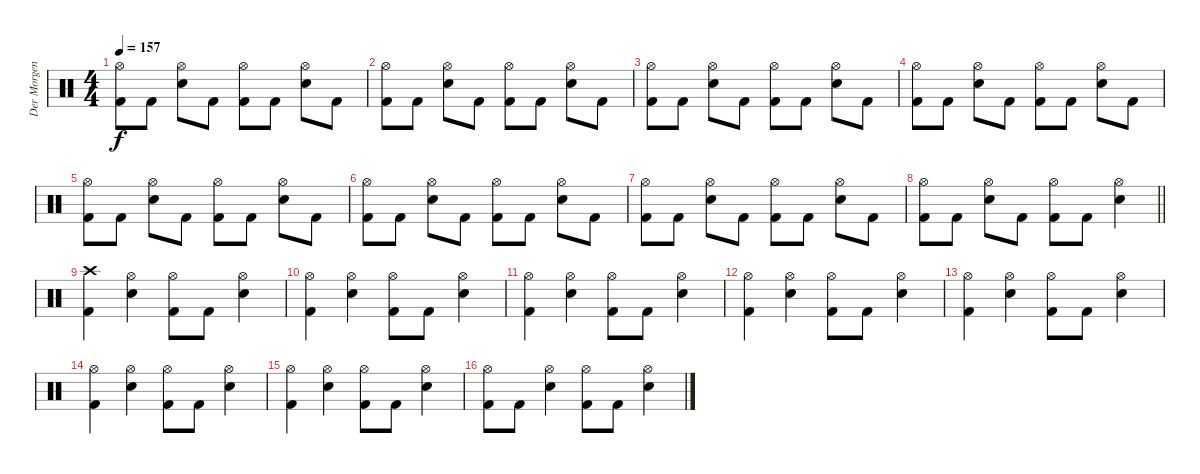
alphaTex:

\track ("Der Morgenstern" "Der Morgen") {instrument percussion}
\staff {score}
\articulation defaults
\ts (4 4)
\tempo 157
\clef neutral
\ks c
("Hi-Hat (open)" "Kick (hit) 2").8{dy f} "Kick (hit) 2".8 ("Hi-Hat (open)" "Electric Snare (hit)").8 "Kick (hit) 2".8 ("Hi-Hat (open)" "Kick (hit) 2").8 "Kick (hit) 2".8 ("Hi-Hat (open)" "Electric Snare (hit)").8 "Kick (hit) 2".8 |
("Hi-Hat (open)" "Kick (hit) 2").8 "Kick (hit) 2".8 ("Hi-Hat (open)" "Electric Snare (hit)").8 "Kick (hit) 2".8 ("Hi-Hat (open)" "Kick (hit) 2").8 "Kick (hit) 2".8 ("Hi-Hat (open)" "Electric Snare (hit)").8 "Kick (hit) 2".8 |
("Hi-Hat (open)" "Kick (hit) 2").8 "Kick (hit) 2".8 ("Hi-Hat (open)" "Electric Snare (hit)").8 "Kick (hit) 2".8 ("Hi-Hat (open)" "Kick (hit) 2").8 "Kick (hit) 2".8 ("Hi-Hat (open)" "Electric Snare (hit)").8 "Kick (hit) 2".8 |
("Hi-Hat (open)" "Kick (hit) 2").8 "Kick (hit) 2".8 ("Hi-Hat (open)" "Electric Snare (hit)").8 "Kick (hit) 2".8 ("Hi-Hat (open)" "Kick (hit) 2").8 "Kick (hit) 2".8 ("Hi-Hat (open)" "Electric Snare (hit)").8 "Kick (hit) 2".8 |
("Hi-Hat (open)" "Kick (hit) 2").8 "Kick (hit) 2".8 ("Hi-Hat (open)" "Electric Snare (hit)").8 "Kick (hit) 2".8 ("Hi-Hat (open)" "Kick (hit) 2").8 "Kick (hit) 2".8 ("Hi-Hat (open)" "Electric Snare (hit)").8 "Kick (hit) 2".8 |
("Hi-Hat (open)" "Kick (hit) 2").8 "Kick (hit) 2".8 ("Hi-Hat (open)" "Electric Snare (hit)").8 "Kick (hit) 2".8 ("Hi-Hat (open)" "Kick (hit) 2").8 "Kick (hit) 2".8 ("Hi-Hat (open)" "Electric Snare (hit)").8 "Kick (hit) 2".8 |
("Hi-Hat (open)" "Kick (hit) 2").8 "Kick (hit) 2".8 ("Hi-Hat (open)" "Electric Snare (hit)").8 "Kick (hit) 2".8 ("Hi-Hat (open)" "Kick (hit) 2").8 "Kick (hit) 2".8 ("Hi-Hat (open)" "Electric Snare (hit)").8 "Kick (hit) 2".8 |
\barLineRight lightlight
("Hi-Hat (open)" "Kick (hit) 2").8 "Kick (hit) 2".8 ("Hi-Hat (open)" "Electric Snare (hit)").8 "Kick (hit) 2".8 ("Hi-Hat (open)" "Kick (hit) 2").8 "Kick (hit) 2".8 ("Hi-Hat (open)" "Electric Snare (hit)").4 |
("Crash high (hit)" "Kick (hit) 2").4 ("Hi-Hat (open)" "Electric Snare (hit)").4 ("Hi-Hat (open)" "Kick (hit) 2").8 "Kick (hit) 2".8 ("Hi-Hat (open)" "Electric Snare (hit)").4 |
("Hi-Hat (open)" "Kick (hit) 2").4 ("Hi-Hat (open)" "Electric Snare (hit)").4 ("Hi-Hat (open)" "Kick (hit) 2").8 "Kick (hit) 2".8 ("Hi-Hat (open)" "Electric Snare (hit)").4 |
("Hi-Hat (open)" "Kick (hit) 2").4 ("Hi-Hat (open)" "Electric Snare (hit)").4 ("Hi-Hat (open)" "Kick (hit) 2").8 "Kick (hit) 2".8 ("Hi-Hat (open)" "Electric Snare (hit)").4 |
("Hi-Hat (open)" "Kick (hit) 2").4 ("Hi-Hat (open)" "Electric Snare (hit)").4 ("Hi-Hat (open)" "Kick (hit) 2").8 "Kick (hit) 2".8 ("Hi-Hat (open)" "Electric Snare (hit)").4 |
("Hi-Hat (open)" "Kick (hit) 2").4 ("Hi-Hat (open)" "Electric Snare (hit)").4 ("Hi-Hat (open)" "Kick (hit) 2").8 "Kick (hit) 2".8 ("Hi-Hat (open)" "Electric Snare (hit)").4 |
("Hi-Hat (open)" "Kick (hit) 2").4 ("Hi-Hat (open)" "Electric Snare (hit)").4 ("Hi-Hat (open)" "Kick (hit) 2").8 "Kick (hit) 2".8 ("Hi-Hat (open)" "Electric Snare (hit)").4 |
("Hi-Hat (open)" "Kick (hit) 2").4 ("Hi-Hat (open)" "Electric Snare (hit)").4 ("Hi-Hat (open)" "Kick (hit) 2").8 "Kick (hit) 2".8 ("Hi-Hat (open)" "Electric Snare (hit)").4 |
("Hi-Hat (open)" "Kick (hit) 2").8 "Kick (hit) 2".8 ("Hi-Hat (open)" "Electric Snare (hit)").4 ("Hi-Hat (open)" "Kick (hit) 2").8 "Kick (hit) 2".8 ("Hi-Hat (open)" "Electric Snare (hit)").4
